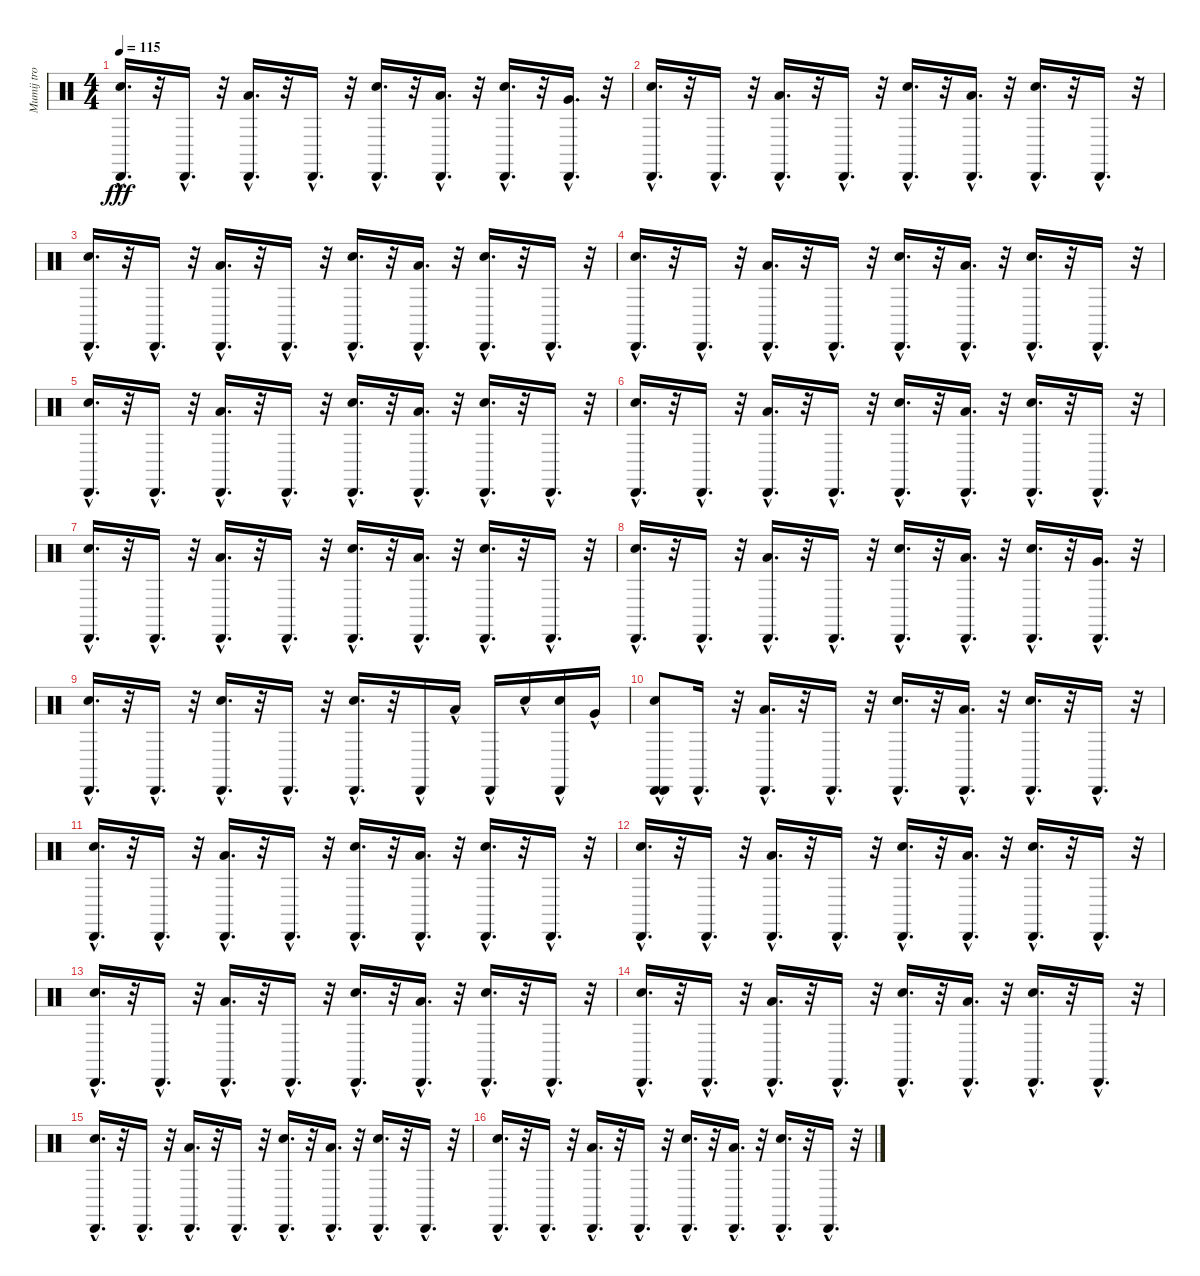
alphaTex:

\track (" Mumij troll" " Mumij tro") {instrument percussion}
\staff {score}
\articulation defaults
\ts (4 4)
\tempo 115
\clef neutral
\ks c
("Electric Snare (hit)"{hac} "Cabasa (hit)"{hac}).16{d dy fff} r.32 "Cabasa (hit)"{hac}.16{d} r.32 ("Low Tom (hit)"{hac} "Cabasa (hit)"{hac}).16{d} r.32 "Cabasa (hit)"{hac}.16{d} r.32 ("Electric Snare (hit)"{hac} "Cabasa (hit)"{hac}).16{d} r.32 ("Low Floor Tom (hit)"{hac} "Cabasa (hit)"{hac}).16{d} r.32 ("Snare (hit) 2"{hac} "Cabasa (hit)"{hac}).16{d} r.32 ("Very Low Tom (hit)"{hac} "Cabasa (hit)"{hac}).16{d} r.32 |
("Electric Snare (hit)"{hac} "Cabasa (hit)"{hac}).16{d} r.32 "Cabasa (hit)"{hac}.16{d} r.32 ("Low Tom (hit)"{hac} "Cabasa (hit)"{hac}).16{d} r.32 "Cabasa (hit)"{hac}.16{d} r.32 ("Electric Snare (hit)"{hac} "Cabasa (hit)"{hac}).16{d} r.32 ("Low Floor Tom (hit)"{hac} "Cabasa (hit)"{hac}).16{d} r.32 ("Snare (hit) 2"{hac} "Cabasa (hit)"{hac}).16{d} r.32 "Cabasa (hit)"{hac}.16{d} r.32 |
("Electric Snare (hit)"{hac} "Cabasa (hit)"{hac}).16{d} r.32 "Cabasa (hit)"{hac}.16{d} r.32 ("Low Tom (hit)"{hac} "Cabasa (hit)"{hac}).16{d} r.32 "Cabasa (hit)"{hac}.16{d} r.32 ("Electric Snare (hit)"{hac} "Cabasa (hit)"{hac}).16{d} r.32 ("Low Floor Tom (hit)"{hac} "Cabasa (hit)"{hac}).16{d} r.32 ("Snare (hit) 2"{hac} "Cabasa (hit)"{hac}).16{d} r.32 "Cabasa (hit)"{hac}.16{d} r.32 |
("Electric Snare (hit)"{hac} "Cabasa (hit)"{hac}).16{d} r.32 "Cabasa (hit)"{hac}.16{d} r.32 ("Low Tom (hit)"{hac} "Cabasa (hit)"{hac}).16{d} r.32 "Cabasa (hit)"{hac}.16{d} r.32 ("Electric Snare (hit)"{hac} "Cabasa (hit)"{hac}).16{d} r.32 ("Low Floor Tom (hit)"{hac} "Cabasa (hit)"{hac}).16{d} r.32 ("Snare (hit) 2"{hac} "Cabasa (hit)"{hac}).16{d} r.32 "Cabasa (hit)"{hac}.16{d} r.32 |
("Electric Snare (hit)"{hac} "Cabasa (hit)"{hac}).16{d} r.32 "Cabasa (hit)"{hac}.16{d} r.32 ("Low Tom (hit)"{hac} "Cabasa (hit)"{hac}).16{d} r.32 "Cabasa (hit)"{hac}.16{d} r.32 ("Electric Snare (hit)"{hac} "Cabasa (hit)"{hac}).16{d} r.32 ("Low Floor Tom (hit)"{hac} "Cabasa (hit)"{hac}).16{d} r.32 ("Snare (hit) 2"{hac} "Cabasa (hit)"{hac}).16{d} r.32 "Cabasa (hit)"{hac}.16{d} r.32 |
("Electric Snare (hit)"{hac} "Cabasa (hit)"{hac}).16{d} r.32 "Cabasa (hit)"{hac}.16{d} r.32 ("Low Tom (hit)"{hac} "Cabasa (hit)"{hac}).16{d} r.32 "Cabasa (hit)"{hac}.16{d} r.32 ("Electric Snare (hit)"{hac} "Cabasa (hit)"{hac}).16{d} r.32 ("Low Floor Tom (hit)"{hac} "Cabasa (hit)"{hac}).16{d} r.32 ("Snare (hit) 2"{hac} "Cabasa (hit)"{hac}).16{d} r.32 "Cabasa (hit)"{hac}.16{d} r.32 |
("Electric Snare (hit)"{hac} "Cabasa (hit)"{hac}).16{d} r.32 "Cabasa (hit)"{hac}.16{d} r.32 ("Low Tom (hit)"{hac} "Cabasa (hit)"{hac}).16{d} r.32 "Cabasa (hit)"{hac}.16{d} r.32 ("Electric Snare (hit)"{hac} "Cabasa (hit)"{hac}).16{d} r.32 ("Low Floor Tom (hit)"{hac} "Cabasa (hit)"{hac}).16{d} r.32 ("Snare (hit) 2"{hac} "Cabasa (hit)"{hac}).16{d} r.32 "Cabasa (hit)"{hac}.16{d} r.32 |
("Electric Snare (hit)"{hac} "Cabasa (hit)"{hac}).16{d} r.32 "Cabasa (hit)"{hac}.16{d} r.32 ("Low Tom (hit)"{hac} "Cabasa (hit)"{hac}).16{d} r.32 "Cabasa (hit)"{hac}.16{d} r.32 ("Electric Snare (hit)"{hac} "Cabasa (hit)"{hac}).16{d} r.32 ("Low Floor Tom (hit)"{hac} "Cabasa (hit)"{hac}).16{d} r.32 ("Snare (hit) 2"{hac} "Cabasa (hit)"{hac}).16{d} r.32 ("Very Low Tom (hit)"{hac} "Cabasa (hit)"{hac}).16{d} r.32 |
("Electric Snare (hit)"{hac} "Cabasa (hit)"{hac}).16{d} r.32 "Cabasa (hit)"{hac}.16{d} r.32 ("Snare (hit) 2"{hac} "Cabasa (hit)"{hac}).16{d} r.32 "Cabasa (hit)"{hac}.16{d} r.32 ("Electric Snare (hit)"{hac} "Cabasa (hit)"{hac}).16{d} r.32 "Cabasa (hit)"{hac}.16 "Low Floor Tom (hit)"{hac}.16 "Cabasa (hit)"{hac}.16 "Snare (hit) 2"{hac}.16 ("Electric Snare (hit)"{hac} "Cabasa (hit)"{hac}).16 "Very Low Tom (hit)"{hac}.16 |
("Cabasa (hit)" "Electric Snare (hit)"{hac} "Cabasa (hit)"{hac}).8 "Cabasa (hit)"{hac}.16{d} r.32 ("Low Tom (hit)"{hac} "Cabasa (hit)"{hac}).16{d} r.32 "Cabasa (hit)"{hac}.16{d} r.32 ("Electric Snare (hit)"{hac} "Cabasa (hit)"{hac}).16{d} r.32 ("Low Floor Tom (hit)"{hac} "Cabasa (hit)"{hac}).16{d} r.32 ("Snare (hit) 2"{hac} "Cabasa (hit)"{hac}).16{d} r.32 "Cabasa (hit)"{hac}.16{d} r.32 |
("Electric Snare (hit)"{hac} "Cabasa (hit)"{hac}).16{d} r.32 "Cabasa (hit)"{hac}.16{d} r.32 ("Low Tom (hit)"{hac} "Cabasa (hit)"{hac}).16{d} r.32 "Cabasa (hit)"{hac}.16{d} r.32 ("Electric Snare (hit)"{hac} "Cabasa (hit)"{hac}).16{d} r.32 ("Low Floor Tom (hit)"{hac} "Cabasa (hit)"{hac}).16{d} r.32 ("Snare (hit) 2"{hac} "Cabasa (hit)"{hac}).16{d} r.32 "Cabasa (hit)"{hac}.16{d} r.32 |
("Electric Snare (hit)"{hac} "Cabasa (hit)"{hac}).16{d} r.32 "Cabasa (hit)"{hac}.16{d} r.32 ("Low Tom (hit)"{hac} "Cabasa (hit)"{hac}).16{d} r.32 "Cabasa (hit)"{hac}.16{d} r.32 ("Electric Snare (hit)"{hac} "Cabasa (hit)"{hac}).16{d} r.32 ("Low Floor Tom (hit)"{hac} "Cabasa (hit)"{hac}).16{d} r.32 ("Snare (hit) 2"{hac} "Cabasa (hit)"{hac}).16{d} r.32 "Cabasa (hit)"{hac}.16{d} r.32 |
("Electric Snare (hit)"{hac} "Cabasa (hit)"{hac}).16{d} r.32 "Cabasa (hit)"{hac}.16{d} r.32 ("Low Tom (hit)"{hac} "Cabasa (hit)"{hac}).16{d} r.32 "Cabasa (hit)"{hac}.16{d} r.32 ("Electric Snare (hit)"{hac} "Cabasa (hit)"{hac}).16{d} r.32 ("Low Floor Tom (hit)"{hac} "Cabasa (hit)"{hac}).16{d} r.32 ("Snare (hit) 2"{hac} "Cabasa (hit)"{hac}).16{d} r.32 "Cabasa (hit)"{hac}.16{d} r.32 |
("Electric Snare (hit)"{hac} "Cabasa (hit)"{hac}).16{d} r.32 "Cabasa (hit)"{hac}.16{d} r.32 ("Low Tom (hit)"{hac} "Cabasa (hit)"{hac}).16{d} r.32 "Cabasa (hit)"{hac}.16{d} r.32 ("Electric Snare (hit)"{hac} "Cabasa (hit)"{hac}).16{d} r.32 ("Low Floor Tom (hit)"{hac} "Cabasa (hit)"{hac}).16{d} r.32 ("Snare (hit) 2"{hac} "Cabasa (hit)"{hac}).16{d} r.32 "Cabasa (hit)"{hac}.16{d} r.32 |
("Electric Snare (hit)"{hac} "Cabasa (hit)"{hac}).16{d} r.32 "Cabasa (hit)"{hac}.16{d} r.32 ("Low Tom (hit)"{hac} "Cabasa (hit)"{hac}).16{d} r.32 "Cabasa (hit)"{hac}.16{d} r.32 ("Electric Snare (hit)"{hac} "Cabasa (hit)"{hac}).16{d} r.32 ("Low Floor Tom (hit)"{hac} "Cabasa (hit)"{hac}).16{d} r.32 ("Snare (hit) 2"{hac} "Cabasa (hit)"{hac}).16{d} r.32 "Cabasa (hit)"{hac}.16{d} r.32 |
("Electric Snare (hit)"{hac} "Cabasa (hit)"{hac}).16{d} r.32 "Cabasa (hit)"{hac}.16{d} r.32 ("Low Tom (hit)"{hac} "Cabasa (hit)"{hac}).16{d} r.32 "Cabasa (hit)"{hac}.16{d} r.32 ("Electric Snare (hit)"{hac} "Cabasa (hit)"{hac}).16{d} r.32 ("Low Floor Tom (hit)"{hac} "Cabasa (hit)"{hac}).16{d} r.32 ("Snare (hit) 2"{hac} "Cabasa (hit)"{hac}).16{d} r.32 "Cabasa (hit)"{hac}.16{d} r.32
